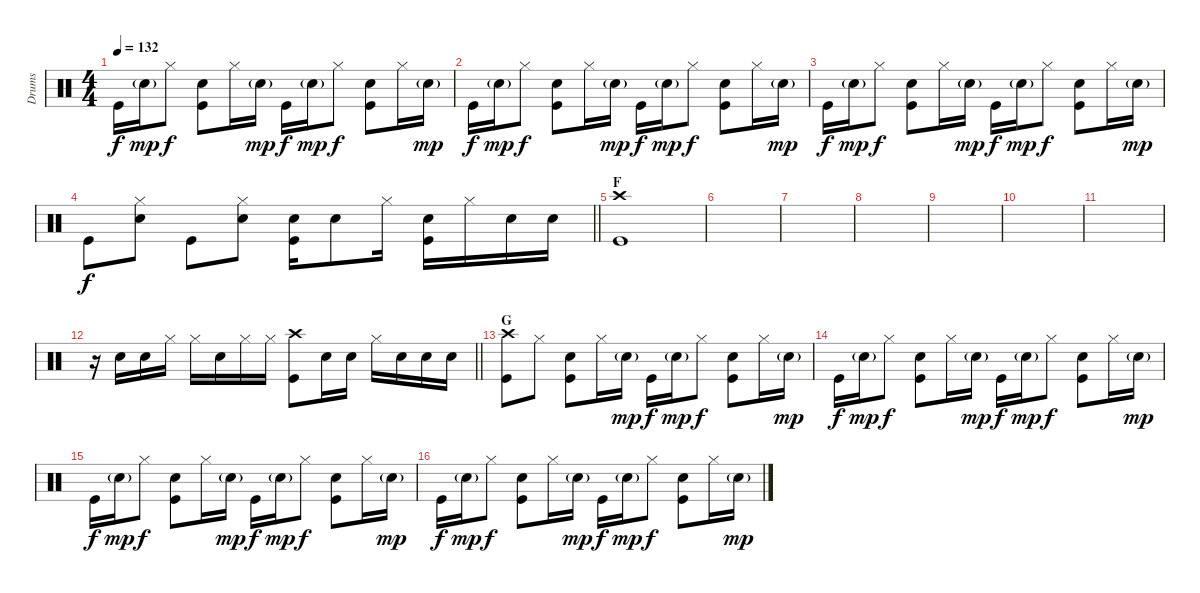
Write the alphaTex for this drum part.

\track ("Drums" "Drums") {instrument percussion}
\staff {score}
\articulation defaults
\ts (4 4)
\tempo 132
\clef neutral
\ks c "Kick (hit)".16{dy f} "Electric Snare (hit)"{g}.16{dy mp} "Hi-Hat (closed)".8{dy f}
("Electric Snare (hit)" "Kick (hit)").8 "Hi-Hat (closed)".16 "Electric Snare (hit)"{g}.16{dy mp} "Kick (hit)".16{dy f} "Electric Snare (hit)"{g}.16{dy mp} "Hi-Hat (closed)".8{dy f} ("Electric Snare (hit)" "Kick (hit)").8 "Hi-Hat (closed)".16 "Electric Snare (hit)"{g}.16{dy mp} |
"Kick (hit)".16{dy f} "Electric Snare (hit)"{g}.16{dy mp} "Hi-Hat (closed)".8{dy f} ("Electric Snare (hit)" "Kick (hit)").8 "Hi-Hat (closed)".16 "Electric Snare (hit)"{g}.16{dy mp} "Kick (hit)".16{dy f} "Electric Snare (hit)"{g}.16{dy mp} "Hi-Hat (closed)".8{dy f} ("Electric Snare (hit)" "Kick (hit)").8 "Hi-Hat (closed)".16 "Electric Snare (hit)"{g}.16{dy mp} |
"Kick (hit)".16{dy f} "Electric Snare (hit)"{g}.16{dy mp} "Hi-Hat (closed)".8{dy f} ("Electric Snare (hit)" "Kick (hit)").8 "Hi-Hat (closed)".16 "Electric Snare (hit)"{g}.16{dy mp} "Kick (hit)".16{dy f} "Electric Snare (hit)"{g}.16{dy mp} "Hi-Hat (closed)".8{dy f} ("Electric Snare (hit)" "Kick (hit)").8 "Hi-Hat (closed)".16 "Electric Snare (hit)"{g}.16{dy mp} |
\barLineRight lightlight "Kick (hit)".8{dy f}
("Hi-Hat (closed)" "Electric Snare (hit)").8 "Kick (hit)".8 ("Hi-Hat (closed)" "Electric Snare (hit)").8 ("Electric Snare (hit)" "Kick (hit)").16 "Electric Snare (hit)".8 "Hi-Hat (closed)".16 ("Electric Snare (hit)" "Kick (hit)").16 "Hi-Hat (closed)".16 "Electric Snare (hit)".16 "Electric Snare (hit)".16 |
\section ("" "F")
("Crash high (hit)" "Kick (hit)").1 |
|
|
|
|
|
|
\barLineRight lightlight
r.16 "Electric Snare (hit)".16 "Electric Snare (hit)".16 "Hi-Hat (closed)".16 "Hi-Hat (closed)".16 "Electric Snare (hit)".16 "Hi-Hat (closed)".16 "Hi-Hat (closed)".16 ("Crash high (hit)" "Kick (hit)").8 "Electric Snare (hit)".16 "Electric Snare (hit)".16 "Hi-Hat (closed)".16 "Electric Snare (hit)".16 "Electric Snare (hit)".16 "Electric Snare (hit)".16 |
\section ("" "G")
("Crash high (hit)" "Kick (hit)").8 "Hi-Hat (closed)".8 ("Electric Snare (hit)" "Kick (hit)").8 "Hi-Hat (closed)".16 "Electric Snare (hit)"{g}.16{dy mp} "Kick (hit)".16{dy f} "Electric Snare (hit)"{g}.16{dy mp} "Hi-Hat (closed)".8{dy f} ("Electric Snare (hit)" "Kick (hit)").8 "Hi-Hat (closed)".16 "Electric Snare (hit)"{g}.16{dy mp} |
"Kick (hit)".16{dy f} "Electric Snare (hit)"{g}.16{dy mp} "Hi-Hat (closed)".8{dy f} ("Electric Snare (hit)" "Kick (hit)").8 "Hi-Hat (closed)".16 "Electric Snare (hit)"{g}.16{dy mp} "Kick (hit)".16{dy f} "Electric Snare (hit)"{g}.16{dy mp} "Hi-Hat (closed)".8{dy f} ("Electric Snare (hit)" "Kick (hit)").8 "Hi-Hat (closed)".16 "Electric Snare (hit)"{g}.16{dy mp} |
"Kick (hit)".16{dy f} "Electric Snare (hit)"{g}.16{dy mp} "Hi-Hat (closed)".8{dy f} ("Electric Snare (hit)" "Kick (hit)").8 "Hi-Hat (closed)".16 "Electric Snare (hit)"{g}.16{dy mp} "Kick (hit)".16{dy f} "Electric Snare (hit)"{g}.16{dy mp} "Hi-Hat (closed)".8{dy f} ("Electric Snare (hit)" "Kick (hit)").8 "Hi-Hat (closed)".16 "Electric Snare (hit)"{g}.16{dy mp} |
"Kick (hit)".16{dy f} "Electric Snare (hit)"{g}.16{dy mp} "Hi-Hat (closed)".8{dy f} ("Electric Snare (hit)" "Kick (hit)").8 "Hi-Hat (closed)".16 "Electric Snare (hit)"{g}.16{dy mp} "Kick (hit)".16{dy f} "Electric Snare (hit)"{g}.16{dy mp} "Hi-Hat (closed)".8{dy f} ("Electric Snare (hit)" "Kick (hit)").8 "Hi-Hat (closed)".16 "Electric Snare (hit)"{g}.16{dy mp}
